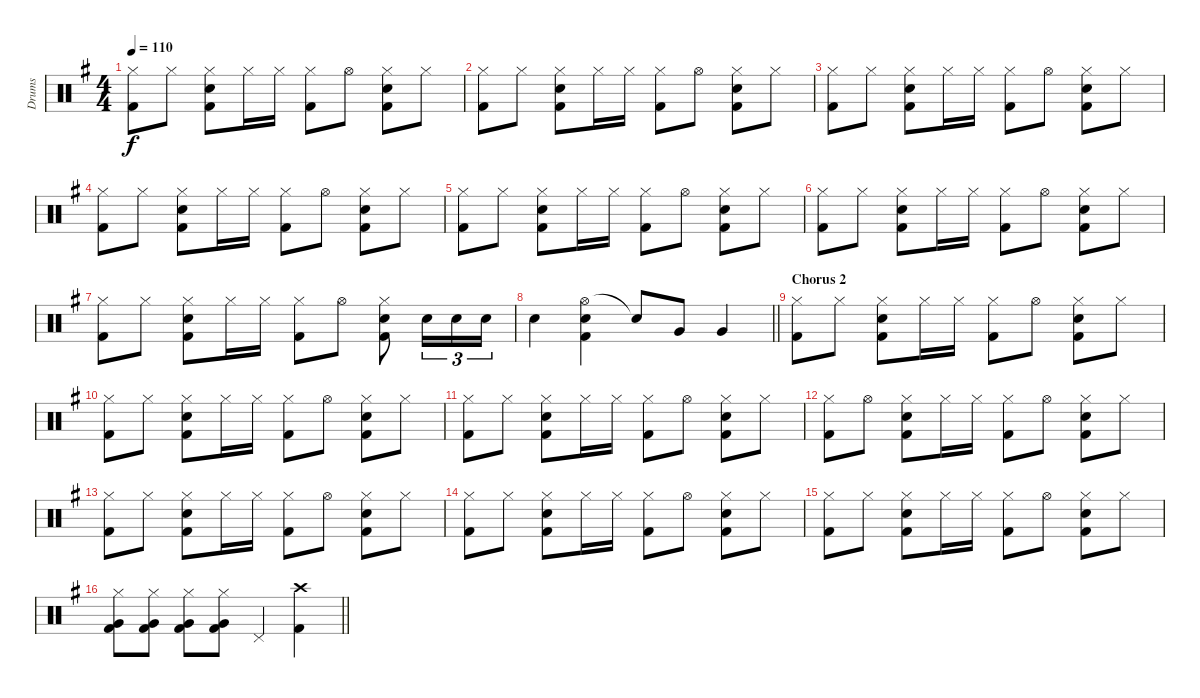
\track ("Drums" "Drums") {instrument percussion}
\staff {score}
\articulation defaults
\ts (4 4)
\tempo 110
\clef neutral
\ks eminor
("Hi-Hat (closed)" "Kick (hit) 2").8{dy f} "Hi-Hat (closed)".8 ("Hi-Hat (closed)" "Snare (hit) 2" "Kick (hit) 2").8 "Hi-Hat (closed)".16 "Hi-Hat (closed)".16 ("Hi-Hat (closed)" "Kick (hit) 2").8 "Hi-Hat (open)".8 ("Hi-Hat (closed)" "Snare (hit) 2" "Kick (hit) 2").8 "Hi-Hat (closed)".8 |
("Hi-Hat (closed)" "Kick (hit) 2").8 "Hi-Hat (closed)".8 ("Hi-Hat (closed)" "Snare (hit) 2" "Kick (hit) 2").8 "Hi-Hat (closed)".16 "Hi-Hat (closed)".16 ("Hi-Hat (closed)" "Kick (hit) 2").8 "Hi-Hat (open)".8 ("Hi-Hat (closed)" "Snare (hit) 2" "Kick (hit) 2").8 "Hi-Hat (closed)".8 |
("Hi-Hat (closed)" "Kick (hit) 2").8 "Hi-Hat (closed)".8 ("Hi-Hat (closed)" "Snare (hit) 2" "Kick (hit) 2").8 "Hi-Hat (closed)".16 "Hi-Hat (closed)".16 ("Hi-Hat (closed)" "Kick (hit) 2").8 "Hi-Hat (open)".8 ("Hi-Hat (closed)" "Snare (hit) 2" "Kick (hit) 2").8 "Hi-Hat (closed)".8 |
("Hi-Hat (closed)" "Kick (hit) 2").8 "Hi-Hat (closed)".8 ("Hi-Hat (closed)" "Snare (hit) 2" "Kick (hit) 2").8 "Hi-Hat (closed)".16 "Hi-Hat (closed)".16 ("Hi-Hat (closed)" "Kick (hit) 2").8 "Hi-Hat (open)".8 ("Hi-Hat (closed)" "Snare (hit) 2" "Kick (hit) 2").8 "Hi-Hat (closed)".8 |
("Hi-Hat (closed)" "Kick (hit) 2").8 "Hi-Hat (closed)".8 ("Hi-Hat (closed)" "Snare (hit) 2" "Kick (hit) 2").8 "Hi-Hat (closed)".16 "Hi-Hat (closed)".16 ("Hi-Hat (closed)" "Kick (hit) 2").8 "Hi-Hat (open)".8 ("Hi-Hat (closed)" "Snare (hit) 2" "Kick (hit) 2").8 "Hi-Hat (closed)".8 |
("Hi-Hat (closed)" "Kick (hit) 2").8 "Hi-Hat (closed)".8 ("Hi-Hat (closed)" "Snare (hit) 2" "Kick (hit) 2").8 "Hi-Hat (closed)".16 "Hi-Hat (closed)".16 ("Hi-Hat (closed)" "Kick (hit) 2").8 "Hi-Hat (open)".8 ("Hi-Hat (closed)" "Snare (hit) 2" "Kick (hit) 2").8 "Hi-Hat (closed)".8 |
("Hi-Hat (closed)" "Kick (hit) 2").8 "Hi-Hat (closed)".8 ("Hi-Hat (closed)" "Snare (hit) 2" "Kick (hit) 2").8 "Hi-Hat (closed)".16 "Hi-Hat (closed)".16 ("Hi-Hat (closed)" "Kick (hit) 2").8 "Hi-Hat (open)".8 ("Hi-Hat (closed)" "Snare (hit) 2" "Kick (hit) 2").8 "Snare (hit) 2".16{tu (3 2)} "Snare (hit) 2".16{tu (3 2)} "Snare (hit) 2".16{tu (3 2)} |
\barLineRight lightlight "Snare (hit) 2".4
("Hi-Hat (open)" "Snare (hit) 2" "Kick (hit) 2").4 "Snare (hit)"{t}.8 "Very Low Tom (hit)".8 "Very Low Tom (hit)".4 |
\section ("" "Chorus 2")
("Hi-Hat (closed)" "Kick (hit) 2").8 "Hi-Hat (closed)".8 ("Hi-Hat (closed)" "Snare (hit) 2" "Kick (hit) 2").8 "Hi-Hat (closed)".16 "Hi-Hat (closed)".16 ("Hi-Hat (closed)" "Kick (hit) 2").8 "Hi-Hat (open)".8 ("Hi-Hat (closed)" "Snare (hit) 2" "Kick (hit) 2").8 "Hi-Hat (closed)".8 |
("Hi-Hat (closed)" "Kick (hit) 2").8 "Hi-Hat (closed)".8 ("Hi-Hat (closed)" "Snare (hit) 2" "Kick (hit) 2").8 "Hi-Hat (closed)".16 "Hi-Hat (closed)".16 ("Hi-Hat (closed)" "Kick (hit) 2").8 "Hi-Hat (open)".8 ("Hi-Hat (closed)" "Snare (hit) 2" "Kick (hit) 2").8 "Hi-Hat (closed)".8 |
("Hi-Hat (closed)" "Kick (hit) 2").8 "Hi-Hat (closed)".8 ("Hi-Hat (closed)" "Snare (hit) 2" "Kick (hit) 2").8 "Hi-Hat (closed)".16 "Hi-Hat (closed)".16 ("Hi-Hat (closed)" "Kick (hit) 2").8 "Hi-Hat (open)".8 ("Hi-Hat (closed)" "Snare (hit) 2" "Kick (hit) 2").8 "Hi-Hat (closed)".8 |
("Hi-Hat (closed)" "Kick (hit) 2").8 "Hi-Hat (open)".8 ("Hi-Hat (closed)" "Snare (hit) 2" "Kick (hit) 2").8 "Hi-Hat (closed)".16 "Hi-Hat (closed)".16 ("Hi-Hat (closed)" "Kick (hit) 2").8 "Hi-Hat (open)".8 ("Hi-Hat (closed)" "Snare (hit) 2" "Kick (hit) 2").8 "Hi-Hat (closed)".8 |
("Hi-Hat (closed)" "Kick (hit) 2").8 "Hi-Hat (closed)".8 ("Hi-Hat (closed)" "Snare (hit) 2" "Kick (hit) 2").8 "Hi-Hat (closed)".16 "Hi-Hat (closed)".16 ("Hi-Hat (closed)" "Kick (hit) 2").8 "Hi-Hat (open)".8 ("Hi-Hat (closed)" "Snare (hit) 2" "Kick (hit) 2").8 "Hi-Hat (closed)".8 |
("Hi-Hat (closed)" "Kick (hit) 2").8 "Hi-Hat (closed)".8 ("Hi-Hat (closed)" "Snare (hit) 2" "Kick (hit) 2").8 "Hi-Hat (closed)".16 "Hi-Hat (closed)".16 ("Hi-Hat (closed)" "Kick (hit) 2").8 "Hi-Hat (open)".8 ("Hi-Hat (closed)" "Snare (hit) 2" "Kick (hit) 2").8 "Hi-Hat (closed)".8 |
("Hi-Hat (closed)" "Kick (hit) 2").8 "Hi-Hat (closed)".8 ("Hi-Hat (closed)" "Snare (hit) 2" "Kick (hit) 2").8 "Hi-Hat (closed)".16 "Hi-Hat (closed)".16 ("Hi-Hat (closed)" "Kick (hit) 2").8 "Hi-Hat (open)".8 ("Hi-Hat (closed)" "Snare (hit) 2" "Kick (hit) 2").8 "Hi-Hat (closed)".8 |
\barLineRight lightlight
("Hi-Hat (closed)" "Very Low Tom (hit)" "Kick (hit) 2").8 ("Hi-Hat (closed)" "Very Low Tom (hit)" "Kick (hit) 2").8 ("Hi-Hat (closed)" "Very Low Tom (hit)" "Kick (hit) 2").8 ("Hi-Hat (closed)" "Very Low Tom (hit)" "Kick (hit) 2").8 "Pedal Hi-Hat (hit)".4 ("Crash high (hit)" "Kick (hit) 2").4
